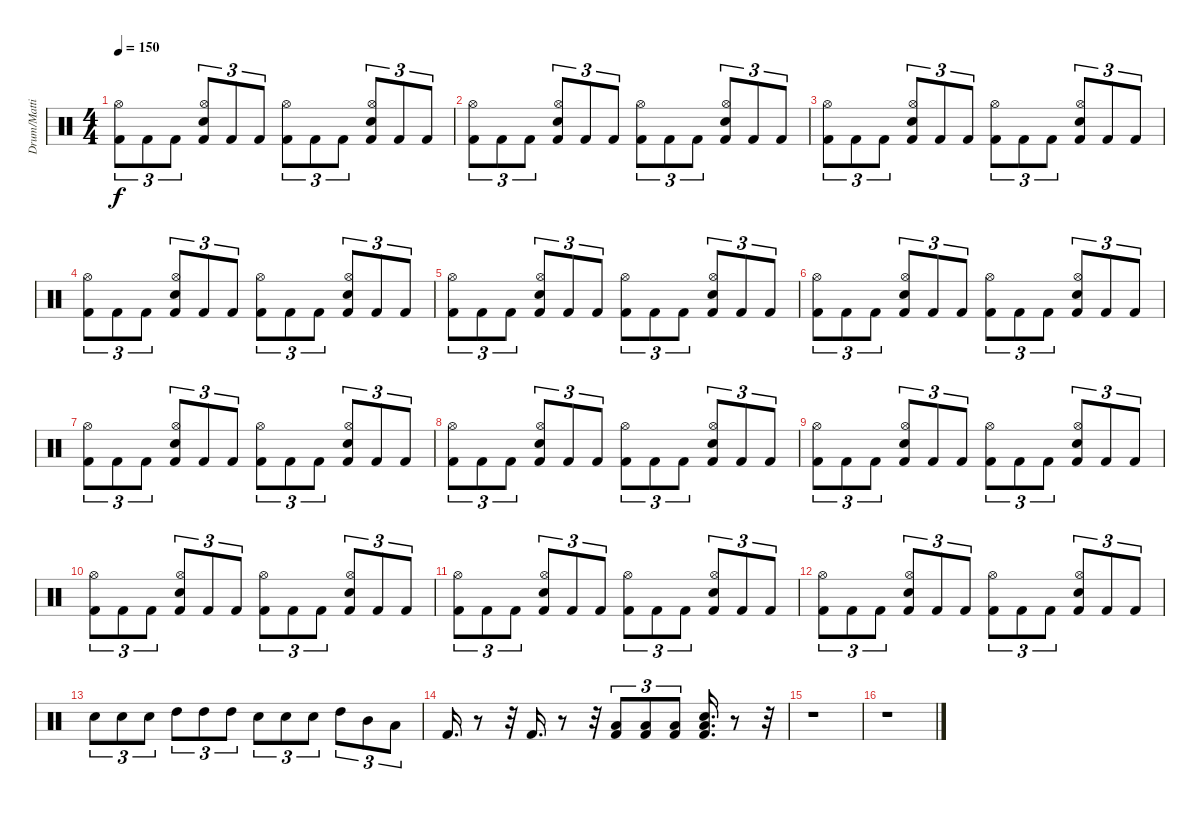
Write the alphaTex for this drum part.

\track ("Drum/Matti" "Drum/Matti") {instrument percussion}
\staff {score}
\articulation defaults
\ts (4 4)
\tempo 150
\clef neutral
\ks c
("Kick (hit) 2" "Hi-Hat (open)").8{tu (3 2) dy f} "Kick (hit) 2".8{tu (3 2)} "Kick (hit) 2".8{tu (3 2)} ("Kick (hit) 2" "Hi-Hat (open)" "Electric Snare (hit)").8{tu (3 2)} "Kick (hit) 2".8{tu (3 2)} "Kick (hit) 2".8{tu (3 2)} ("Kick (hit) 2" "Hi-Hat (open)").8{tu (3 2)} "Kick (hit) 2".8{tu (3 2)} "Kick (hit) 2".8{tu (3 2)} ("Kick (hit) 2" "Hi-Hat (open)" "Electric Snare (hit)").8{tu (3 2)} "Kick (hit) 2".8{tu (3 2)} "Kick (hit) 2".8{tu (3 2)} |
("Kick (hit) 2" "Hi-Hat (open)").8{tu (3 2)} "Kick (hit) 2".8{tu (3 2)} "Kick (hit) 2".8{tu (3 2)} ("Kick (hit) 2" "Hi-Hat (open)" "Electric Snare (hit)").8{tu (3 2)} "Kick (hit) 2".8{tu (3 2)} "Kick (hit) 2".8{tu (3 2)} ("Kick (hit) 2" "Hi-Hat (open)").8{tu (3 2)} "Kick (hit) 2".8{tu (3 2)} "Kick (hit) 2".8{tu (3 2)} ("Kick (hit) 2" "Hi-Hat (open)" "Electric Snare (hit)").8{tu (3 2)} "Kick (hit) 2".8{tu (3 2)} "Kick (hit) 2".8{tu (3 2)} |
("Kick (hit) 2" "Hi-Hat (open)").8{tu (3 2)} "Kick (hit) 2".8{tu (3 2)} "Kick (hit) 2".8{tu (3 2)} ("Kick (hit) 2" "Hi-Hat (open)" "Electric Snare (hit)").8{tu (3 2)} "Kick (hit) 2".8{tu (3 2)} "Kick (hit) 2".8{tu (3 2)} ("Kick (hit) 2" "Hi-Hat (open)").8{tu (3 2)} "Kick (hit) 2".8{tu (3 2)} "Kick (hit) 2".8{tu (3 2)} ("Kick (hit) 2" "Hi-Hat (open)" "Electric Snare (hit)").8{tu (3 2)} "Kick (hit) 2".8{tu (3 2)} "Kick (hit) 2".8{tu (3 2)} |
("Kick (hit) 2" "Hi-Hat (open)").8{tu (3 2)} "Kick (hit) 2".8{tu (3 2)} "Kick (hit) 2".8{tu (3 2)} ("Kick (hit) 2" "Hi-Hat (open)" "Electric Snare (hit)").8{tu (3 2)} "Kick (hit) 2".8{tu (3 2)} "Kick (hit) 2".8{tu (3 2)} ("Kick (hit) 2" "Hi-Hat (open)").8{tu (3 2)} "Kick (hit) 2".8{tu (3 2)} "Kick (hit) 2".8{tu (3 2)} ("Kick (hit) 2" "Hi-Hat (open)" "Electric Snare (hit)").8{tu (3 2)} "Kick (hit) 2".8{tu (3 2)} "Kick (hit) 2".8{tu (3 2)} |
("Kick (hit) 2" "Hi-Hat (open)").8{tu (3 2)} "Kick (hit) 2".8{tu (3 2)} "Kick (hit) 2".8{tu (3 2)} ("Kick (hit) 2" "Hi-Hat (open)" "Electric Snare (hit)").8{tu (3 2)} "Kick (hit) 2".8{tu (3 2)} "Kick (hit) 2".8{tu (3 2)} ("Kick (hit) 2" "Hi-Hat (open)").8{tu (3 2)} "Kick (hit) 2".8{tu (3 2)} "Kick (hit) 2".8{tu (3 2)} ("Kick (hit) 2" "Hi-Hat (open)" "Electric Snare (hit)").8{tu (3 2)} "Kick (hit) 2".8{tu (3 2)} "Kick (hit) 2".8{tu (3 2)} |
("Kick (hit) 2" "Hi-Hat (open)").8{tu (3 2)} "Kick (hit) 2".8{tu (3 2)} "Kick (hit) 2".8{tu (3 2)} ("Kick (hit) 2" "Hi-Hat (open)" "Electric Snare (hit)").8{tu (3 2)} "Kick (hit) 2".8{tu (3 2)} "Kick (hit) 2".8{tu (3 2)} ("Kick (hit) 2" "Hi-Hat (open)").8{tu (3 2)} "Kick (hit) 2".8{tu (3 2)} "Kick (hit) 2".8{tu (3 2)} ("Kick (hit) 2" "Hi-Hat (open)" "Electric Snare (hit)").8{tu (3 2)} "Kick (hit) 2".8{tu (3 2)} "Kick (hit) 2".8{tu (3 2)} |
("Kick (hit) 2" "Hi-Hat (open)").8{tu (3 2)} "Kick (hit) 2".8{tu (3 2)} "Kick (hit) 2".8{tu (3 2)} ("Kick (hit) 2" "Hi-Hat (open)" "Electric Snare (hit)").8{tu (3 2)} "Kick (hit) 2".8{tu (3 2)} "Kick (hit) 2".8{tu (3 2)} ("Kick (hit) 2" "Hi-Hat (open)").8{tu (3 2)} "Kick (hit) 2".8{tu (3 2)} "Kick (hit) 2".8{tu (3 2)} ("Kick (hit) 2" "Hi-Hat (open)" "Electric Snare (hit)").8{tu (3 2)} "Kick (hit) 2".8{tu (3 2)} "Kick (hit) 2".8{tu (3 2)} |
("Kick (hit) 2" "Hi-Hat (open)").8{tu (3 2)} "Kick (hit) 2".8{tu (3 2)} "Kick (hit) 2".8{tu (3 2)} ("Kick (hit) 2" "Hi-Hat (open)" "Electric Snare (hit)").8{tu (3 2)} "Kick (hit) 2".8{tu (3 2)} "Kick (hit) 2".8{tu (3 2)} ("Kick (hit) 2" "Hi-Hat (open)").8{tu (3 2)} "Kick (hit) 2".8{tu (3 2)} "Kick (hit) 2".8{tu (3 2)} ("Kick (hit) 2" "Hi-Hat (open)" "Electric Snare (hit)").8{tu (3 2)} "Kick (hit) 2".8{tu (3 2)} "Kick (hit) 2".8{tu (3 2)} |
("Kick (hit) 2" "Hi-Hat (open)").8{tu (3 2)} "Kick (hit) 2".8{tu (3 2)} "Kick (hit) 2".8{tu (3 2)} ("Kick (hit) 2" "Hi-Hat (open)" "Electric Snare (hit)").8{tu (3 2)} "Kick (hit) 2".8{tu (3 2)} "Kick (hit) 2".8{tu (3 2)} ("Kick (hit) 2" "Hi-Hat (open)").8{tu (3 2)} "Kick (hit) 2".8{tu (3 2)} "Kick (hit) 2".8{tu (3 2)} ("Kick (hit) 2" "Hi-Hat (open)" "Electric Snare (hit)").8{tu (3 2)} "Kick (hit) 2".8{tu (3 2)} "Kick (hit) 2".8{tu (3 2)} |
("Kick (hit) 2" "Hi-Hat (open)").8{tu (3 2)} "Kick (hit) 2".8{tu (3 2)} "Kick (hit) 2".8{tu (3 2)} ("Kick (hit) 2" "Hi-Hat (open)" "Electric Snare (hit)").8{tu (3 2)} "Kick (hit) 2".8{tu (3 2)} "Kick (hit) 2".8{tu (3 2)} ("Kick (hit) 2" "Hi-Hat (open)").8{tu (3 2)} "Kick (hit) 2".8{tu (3 2)} "Kick (hit) 2".8{tu (3 2)} ("Kick (hit) 2" "Hi-Hat (open)" "Electric Snare (hit)").8{tu (3 2)} "Kick (hit) 2".8{tu (3 2)} "Kick (hit) 2".8{tu (3 2)} |
("Kick (hit) 2" "Hi-Hat (open)").8{tu (3 2)} "Kick (hit) 2".8{tu (3 2)} "Kick (hit) 2".8{tu (3 2)} ("Kick (hit) 2" "Hi-Hat (open)" "Electric Snare (hit)").8{tu (3 2)} "Kick (hit) 2".8{tu (3 2)} "Kick (hit) 2".8{tu (3 2)} ("Kick (hit) 2" "Hi-Hat (open)").8{tu (3 2)} "Kick (hit) 2".8{tu (3 2)} "Kick (hit) 2".8{tu (3 2)} ("Kick (hit) 2" "Hi-Hat (open)" "Electric Snare (hit)").8{tu (3 2)} "Kick (hit) 2".8{tu (3 2)} "Kick (hit) 2".8{tu (3 2)} |
("Kick (hit) 2" "Hi-Hat (open)").8{tu (3 2)} "Kick (hit) 2".8{tu (3 2)} "Kick (hit) 2".8{tu (3 2)} ("Kick (hit) 2" "Hi-Hat (open)" "Electric Snare (hit)").8{tu (3 2)} "Kick (hit) 2".8{tu (3 2)} "Kick (hit) 2".8{tu (3 2)} ("Kick (hit) 2" "Hi-Hat (open)").8{tu (3 2)} "Kick (hit) 2".8{tu (3 2)} "Kick (hit) 2".8{tu (3 2)} ("Kick (hit) 2" "Hi-Hat (open)" "Electric Snare (hit)").8{tu (3 2)} "Kick (hit) 2".8{tu (3 2)} "Kick (hit) 2".8{tu (3 2)} |
"Electric Snare (hit)".8{tu (3 2)} "Electric Snare (hit)".8{tu (3 2)} "Electric Snare (hit)".8{tu (3 2)} "High Tom (hit)".8{tu (3 2)} "High Tom (hit)".8{tu (3 2)} "High Tom (hit)".8{tu (3 2)} "Electric Snare (hit)".8{tu (3 2)} "Electric Snare (hit)".8{tu (3 2)} "Electric Snare (hit)".8{tu (3 2)} "High Tom (hit)".8{tu (3 2)} "Mid Tom (hit)".8{tu (3 2)} "Low Tom (hit)".8{tu (3 2)} |
"Kick (hit) 2".16{d} r.8 r.32 "Kick (hit) 2".16{d} r.8 r.32 ("Kick (hit) 2" "Low Tom (hit)").8{tu (3 2)} ("Kick (hit) 2" "Low Tom (hit)").8{tu (3 2)} ("Kick (hit) 2" "Low Tom (hit)").8{tu (3 2)} ("Kick (hit) 2" "Low Tom (hit)" "Electric Snare (hit)").16{d} r.8 r.32 |
r.1 |
r.1
